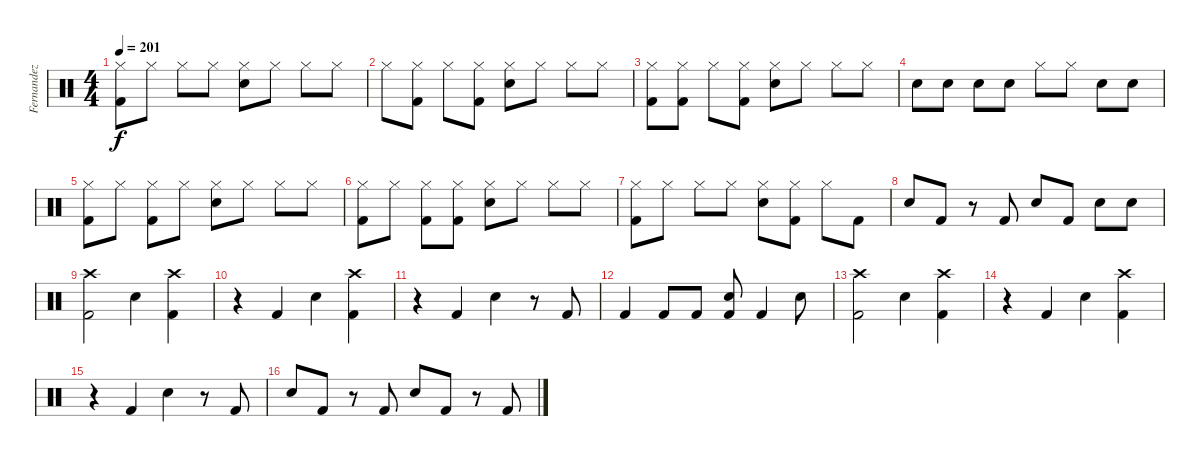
\track ("Fernandez" "Fernandez") {instrument percussion}
\staff {score}
\articulation defaults
\ts (4 4)
\tempo 201
\clef neutral
\ks c
("Kick (hit) 2" "Hi-Hat (closed)").8{dy f} "Hi-Hat (closed)".8 "Hi-Hat (closed)".8 "Hi-Hat (closed)".8 ("Snare (hit) 2" "Hi-Hat (closed)").8 "Hi-Hat (closed)".8 "Hi-Hat (closed)".8 "Hi-Hat (closed)".8 |
"Hi-Hat (closed)".8 ("Kick (hit) 2" "Hi-Hat (closed)").8 "Hi-Hat (closed)".8 ("Kick (hit) 2" "Hi-Hat (closed)").8 ("Snare (hit) 2" "Hi-Hat (closed)").8 "Hi-Hat (closed)".8 "Hi-Hat (closed)".8 "Hi-Hat (closed)".8 |
("Kick (hit) 2" "Hi-Hat (closed)").8 ("Kick (hit) 2" "Hi-Hat (closed)").8 "Hi-Hat (closed)".8 ("Kick (hit) 2" "Hi-Hat (closed)").8 ("Snare (hit) 2" "Hi-Hat (closed)").8 "Hi-Hat (closed)".8 "Hi-Hat (closed)".8 "Hi-Hat (closed)".8 |
"Snare (hit) 2".8 "Snare (hit) 2".8 "Snare (hit) 2".8 "Snare (hit) 2".8 "Hi-Hat (closed)".8 "Hi-Hat (closed)".8 "Snare (hit) 2".8 "Snare (hit) 2".8 |
("Kick (hit) 2" "Hi-Hat (closed)").8 "Hi-Hat (closed)".8 ("Kick (hit) 2" "Hi-Hat (closed)").8 "Hi-Hat (closed)".8 ("Snare (hit) 2" "Hi-Hat (closed)").8 "Hi-Hat (closed)".8 "Hi-Hat (closed)".8 "Hi-Hat (closed)".8 |
("Kick (hit) 2" "Hi-Hat (closed)").8 "Hi-Hat (closed)".8 ("Kick (hit) 2" "Hi-Hat (closed)").8 ("Kick (hit) 2" "Hi-Hat (closed)").8 ("Snare (hit) 2" "Hi-Hat (closed)").8 "Hi-Hat (closed)".8 "Hi-Hat (closed)".8 "Hi-Hat (closed)".8 |
("Kick (hit) 2" "Hi-Hat (closed)").8 "Hi-Hat (closed)".8 "Hi-Hat (closed)".8 "Hi-Hat (closed)".8 ("Snare (hit) 2" "Hi-Hat (closed)").8 ("Kick (hit) 2" "Hi-Hat (closed)").8 "Hi-Hat (closed)".8 "Kick (hit) 2".8 |
"Snare (hit) 2".8 "Kick (hit) 2".8 r.8 "Kick (hit) 2".8 "Snare (hit) 2".8 "Kick (hit) 2".8 "Snare (hit) 2".8 "Snare (hit) 2".8 |
("Kick (hit) 2" "Crash high (hit)").2 "Snare (hit) 2".4 ("Kick (hit) 2" "Crash high (hit)").4 |
r.4 "Kick (hit) 2".4 "Snare (hit) 2".4 ("Crash high (hit)" "Kick (hit) 2").4 |
r.4 "Kick (hit) 2".4 "Snare (hit) 2".4 r.8 "Kick (hit) 2".8 |
"Kick (hit) 2".4 "Kick (hit) 2".8 "Kick (hit) 2".8 ("Snare (hit) 2" "Kick (hit) 2").8 "Kick (hit) 2".4 "Snare (hit) 2".8 |
("Crash high (hit)" "Kick (hit) 2").2 "Snare (hit) 2".4 ("Crash high (hit)" "Kick (hit) 2").4 |
r.4 "Kick (hit) 2".4 "Snare (hit) 2".4 ("Crash high (hit)" "Kick (hit) 2").4 |
r.4 "Kick (hit) 2".4 "Snare (hit) 2".4 r.8 "Kick (hit) 2".8 |
"Snare (hit) 2".8 "Kick (hit) 2".8 r.8 "Kick (hit) 2".8 "Snare (hit) 2".8 "Kick (hit) 2".8 r.8 "Kick (hit) 2".8
